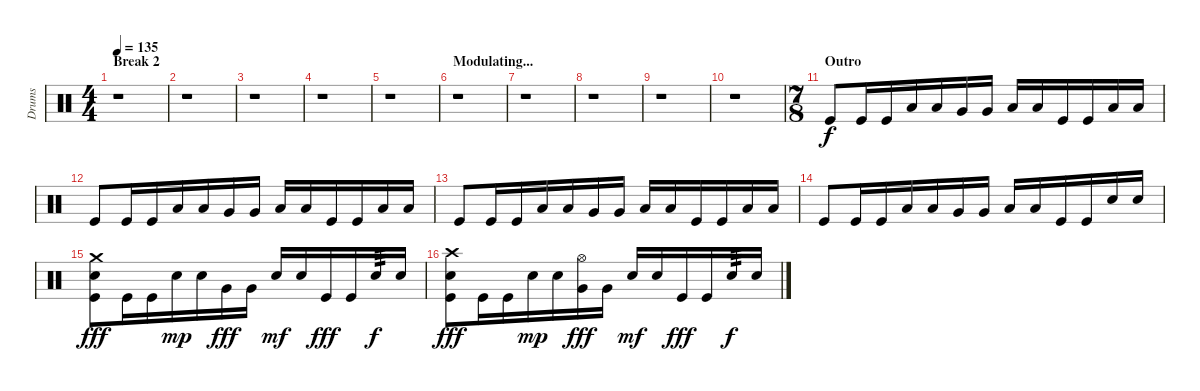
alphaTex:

\track ("Drums" "Drums") {instrument percussion}
\staff {score}
\articulation defaults
\ts (4 4)
\section ("" "Break 2")
\tempo 135
\clef neutral
\ks c
r.1{dy f} |
r.1 |
r.1 |
r.1 |
r.1 |
\section ("" "Modulating...")
r.1 |
r.1 |
r.1 |
r.1 |
r.1 |
\ts (7 8)
\section ("" "Outro")
"Kick (hit)".8 "Kick (hit)".16 "Kick (hit)".16 "Low Tom (hit)".16 "Low Tom (hit)".16 "Very Low Tom (hit)".16 "Very Low Tom (hit)".16 "Low Floor Tom (hit)".16 "Low Floor Tom (hit)".16 "Kick (hit)".16 "Kick (hit)".16 "Low Tom (hit)".16 "Low Tom (hit)".16 |
"Kick (hit)".8 "Kick (hit)".16 "Kick (hit)".16 "Low Tom (hit)".16 "Low Tom (hit)".16 "Very Low Tom (hit)".16 "Very Low Tom (hit)".16 "Low Floor Tom (hit)".16 "Low Floor Tom (hit)".16 "Kick (hit)".16 "Kick (hit)".16 "Low Tom (hit)".16 "Low Tom (hit)".16 |
"Kick (hit)".8 "Kick (hit)".16 "Kick (hit)".16 "Low Tom (hit)".16 "Low Tom (hit)".16 "Very Low Tom (hit)".16 "Very Low Tom (hit)".16 "Low Floor Tom (hit)".16 "Low Floor Tom (hit)".16 "Kick (hit)".16 "Kick (hit)".16 "Low Tom (hit)".16 "Low Tom (hit)".16 |
"Kick (hit)".8 "Kick (hit)".16 "Kick (hit)".16 "Low Tom (hit)".16 "Low Tom (hit)".16 "Very Low Tom (hit)".16 "Very Low Tom (hit)".16 "Low Floor Tom (hit)".16 "Low Floor Tom (hit)".16 "Kick (hit)".16 "Kick (hit)".16 "Electric Snare (hit)".16 "Electric Snare (hit)".16 |
("Crash medium (hit)" "Electric Snare (hit)" "Kick (hit)").8{dy fff} "Kick (hit)".16 "Kick (hit)".16 "Electric Snare (hit)".16{dy mp} "Electric Snare (hit)".16 "Very Low Tom (hit)".16{dy fff} "Very Low Tom (hit)".16 "Electric Snare (hit)".16{dy mf} "Electric Snare (hit)".16 "Kick (hit)".16{dy fff} "Kick (hit)".16 "Electric Snare (hit)".16{tp 3 dy f} "Electric Snare (hit)".16 |
("Crash high (hit)" "Electric Snare (hit)" "Kick (hit)").8{dy fff} "Kick (hit)".16 "Kick (hit)".16 "Electric Snare (hit)".16{dy mp} "Electric Snare (hit)".16 ("Hi-Hat (open)" "Very Low Tom (hit)").16{dy fff} "Very Low Tom (hit)".16 "Electric Snare (hit)".16{dy mf} "Electric Snare (hit)".16 "Kick (hit)".16{dy fff} "Kick (hit)".16 "Electric Snare (hit)".16{tp 3 dy f} "Electric Snare (hit)".16
